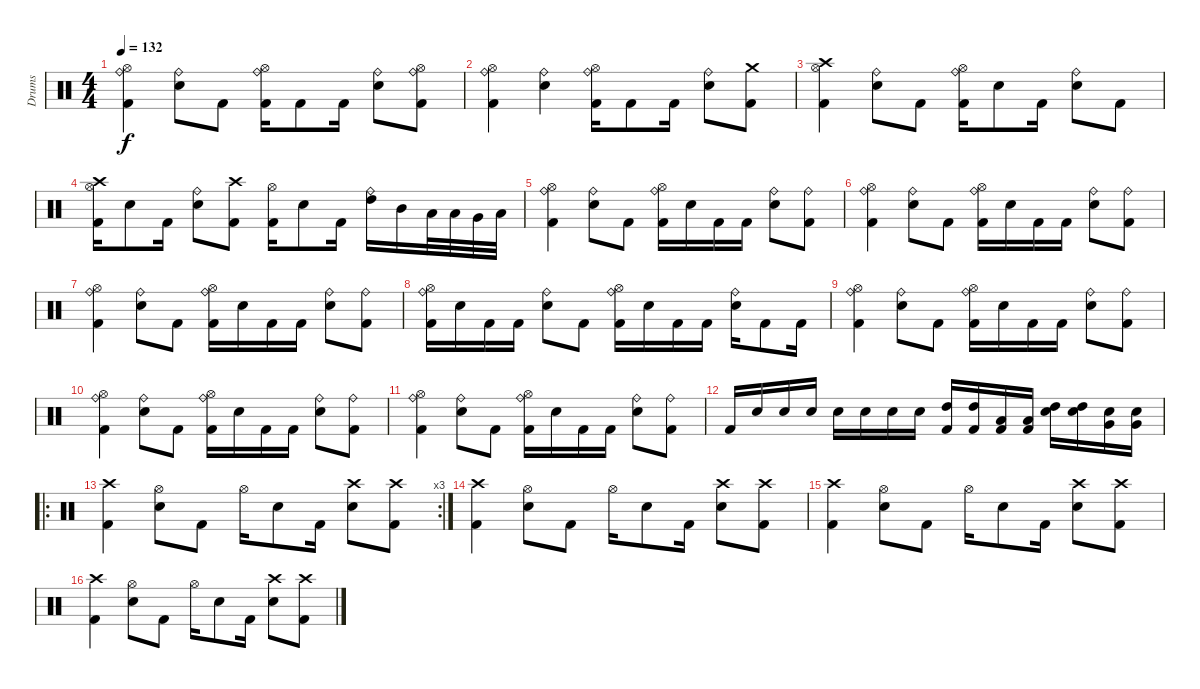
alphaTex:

\track ("Drums" "Drums") {instrument percussion}
\staff {score}
\articulation defaults
\ts (4 4)
\tempo 132
\clef neutral
\ks c
("Ride (bell)" "Hi-Hat (open)" "Kick (hit) 2").4{dy f} ("Ride (bell)" "Electric Snare (hit)").8 "Kick (hit) 2".8 ("Ride (bell)" "Hi-Hat (open)" "Kick (hit) 2").16 "Kick (hit) 2".8 "Kick (hit) 2".16 ("Ride (bell)" "Electric Snare (hit)").8 ("Ride (bell)" "Hi-Hat (open)" "Kick (hit) 2").8 |
("Ride (bell)" "Hi-Hat (open)" "Kick (hit) 2").4 ("Ride (bell)" "Electric Snare (hit)").4 ("Ride (bell)" "Hi-Hat (open)" "Kick (hit) 2").16 "Kick (hit) 2".8 "Kick (hit) 2".16 ("Ride (bell)" "Electric Snare (hit)").8 ("Crash medium (hit)" "Kick (hit) 2").8 |
("Crash high (hit)" "Hi-Hat (open)" "Kick (hit) 2").4 ("Ride (bell)" "Electric Snare (hit)").8 "Kick (hit) 2".8 ("Ride (bell)" "Hi-Hat (open)" "Kick (hit) 2").16 "Electric Snare (hit)".8 "Kick (hit) 2".16 ("Ride (bell)" "Electric Snare (hit)").8 "Kick (hit) 2".8 |
("Crash high (hit)" "Hi-Hat (open)" "Kick (hit) 2").16 "Electric Snare (hit)".8 "Kick (hit) 2".16 ("Ride (bell)" "Electric Snare (hit)").8 ("Crash high (hit)" "Kick (hit) 2").8 ("Hi-Hat (open)" "Kick (hit) 2").16 "Electric Snare (hit)".8 "Kick (hit) 2".16 ("Ride (bell)" "High Tom (hit)").16 "Mid Tom (hit)".16 "Low Tom (hit)".32 "Low Tom (hit)".32 "Very Low Tom (hit)".32 "Low Floor Tom (hit)".32 |
("Ride (bell)" "Hi-Hat (open)" "Kick (hit) 2").4 ("Ride (bell)" "Electric Snare (hit)").8 "Kick (hit) 2".8 ("Ride (bell)" "Hi-Hat (open)" "Kick (hit) 2").16 "Electric Snare (hit)".16 "Kick (hit) 2".16 "Kick (hit) 2".16 ("Ride (bell)" "Electric Snare (hit)").8 ("Ride (bell)" "Kick (hit) 2").8 |
("Ride (bell)" "Hi-Hat (open)" "Kick (hit) 2").4 ("Ride (bell)" "Electric Snare (hit)").8 "Kick (hit) 2".8 ("Ride (bell)" "Hi-Hat (open)" "Kick (hit) 2").16 "Electric Snare (hit)".16 "Kick (hit) 2".16 "Kick (hit) 2".16 ("Ride (bell)" "Electric Snare (hit)").8 ("Ride (bell)" "Kick (hit) 2").8 |
("Ride (bell)" "Hi-Hat (open)" "Kick (hit) 2").4 ("Ride (bell)" "Electric Snare (hit)").8 "Kick (hit) 2".8 ("Ride (bell)" "Hi-Hat (open)" "Kick (hit) 2").16 "Electric Snare (hit)".16 "Kick (hit) 2".16 "Kick (hit) 2".16 ("Ride (bell)" "Electric Snare (hit)").8 ("Ride (bell)" "Kick (hit) 2").8 |
("Ride (bell)" "Hi-Hat (open)" "Kick (hit) 2").16 "Electric Snare (hit)".16 "Kick (hit) 2".16 "Kick (hit) 2".16 ("Ride (bell)" "Electric Snare (hit)").8 "Kick (hit) 2".8 ("Ride (bell)" "Hi-Hat (open)" "Kick (hit) 2").16 "Electric Snare (hit)".16 "Kick (hit) 2".16 "Kick (hit) 2".16 ("Ride (bell)" "Electric Snare (hit)").16 "Kick (hit) 2".8 "Kick (hit) 2".16 |
("Ride (bell)" "Hi-Hat (open)" "Kick (hit) 2").4 ("Ride (bell)" "Electric Snare (hit)").8 "Kick (hit) 2".8 ("Ride (bell)" "Hi-Hat (open)" "Kick (hit) 2").16 "Electric Snare (hit)".16 "Kick (hit) 2".16 "Kick (hit) 2".16 ("Ride (bell)" "Electric Snare (hit)").8 ("Ride (bell)" "Kick (hit) 2").8 |
("Ride (bell)" "Hi-Hat (open)" "Kick (hit) 2").4 ("Ride (bell)" "Electric Snare (hit)").8 "Kick (hit) 2".8 ("Ride (bell)" "Hi-Hat (open)" "Kick (hit) 2").16 "Electric Snare (hit)".16 "Kick (hit) 2".16 "Kick (hit) 2".16 ("Ride (bell)" "Electric Snare (hit)").8 ("Ride (bell)" "Kick (hit) 2").8 |
("Ride (bell)" "Hi-Hat (open)" "Kick (hit) 2").4 ("Ride (bell)" "Electric Snare (hit)").8 "Kick (hit) 2".8 ("Ride (bell)" "Hi-Hat (open)" "Kick (hit) 2").16 "Electric Snare (hit)".16 "Kick (hit) 2".16 "Kick (hit) 2".16 ("Ride (bell)" "Electric Snare (hit)").8 ("Ride (bell)" "Kick (hit) 2").8 |
"Kick (hit) 2".16 "Electric Snare (hit)".16 "Electric Snare (hit)".16 "Electric Snare (hit)".16 "Electric Snare (hit)".16 "Electric Snare (hit)".16 "Electric Snare (hit)".16 "Electric Snare (hit)".16 ("High Tom (hit)" "Kick (hit) 2").16 ("High Tom (hit)" "Kick (hit) 2").16 ("Low Tom (hit)" "Kick (hit) 2").16 ("Low Tom (hit)" "Kick (hit) 2").16 ("High Tom (hit)" "Electric Snare (hit)").16 ("High Tom (hit)" "Electric Snare (hit)").16 ("Very Low Tom (hit)" "Electric Snare (hit)").16 ("Very Low Tom (hit)" "Electric Snare (hit)").16 |
\ro
\rc 3
("Crash high (hit)" "Kick (hit) 2").4 ("Hi-Hat (open)" "Electric Snare (hit)").8 "Kick (hit) 2".8 "Hi-Hat (open)".16 "Electric Snare (hit)".8 "Kick (hit) 2".16 ("Crash high (hit)" "Electric Snare (hit)").8 ("Crash high (hit)" "Kick (hit) 2").8 |
("Crash high (hit)" "Kick (hit) 2").4 ("Hi-Hat (open)" "Electric Snare (hit)").8 "Kick (hit) 2".8 "Hi-Hat (open)".16 "Electric Snare (hit)".8 "Kick (hit) 2".16 ("Crash high (hit)" "Electric Snare (hit)").8 ("Crash high (hit)" "Kick (hit) 2").8 |
("Crash high (hit)" "Kick (hit) 2").4 ("Hi-Hat (open)" "Electric Snare (hit)").8 "Kick (hit) 2".8 "Hi-Hat (open)".16 "Electric Snare (hit)".8 "Kick (hit) 2".16 ("Crash high (hit)" "Electric Snare (hit)").8 ("Crash high (hit)" "Kick (hit) 2").8 |
("Crash high (hit)" "Kick (hit) 2").4 ("Hi-Hat (open)" "Electric Snare (hit)").8 "Kick (hit) 2".8 "Hi-Hat (open)".16 "Electric Snare (hit)".8 "Kick (hit) 2".16 ("Crash high (hit)" "Electric Snare (hit)").8 ("Crash high (hit)" "Kick (hit) 2").8
